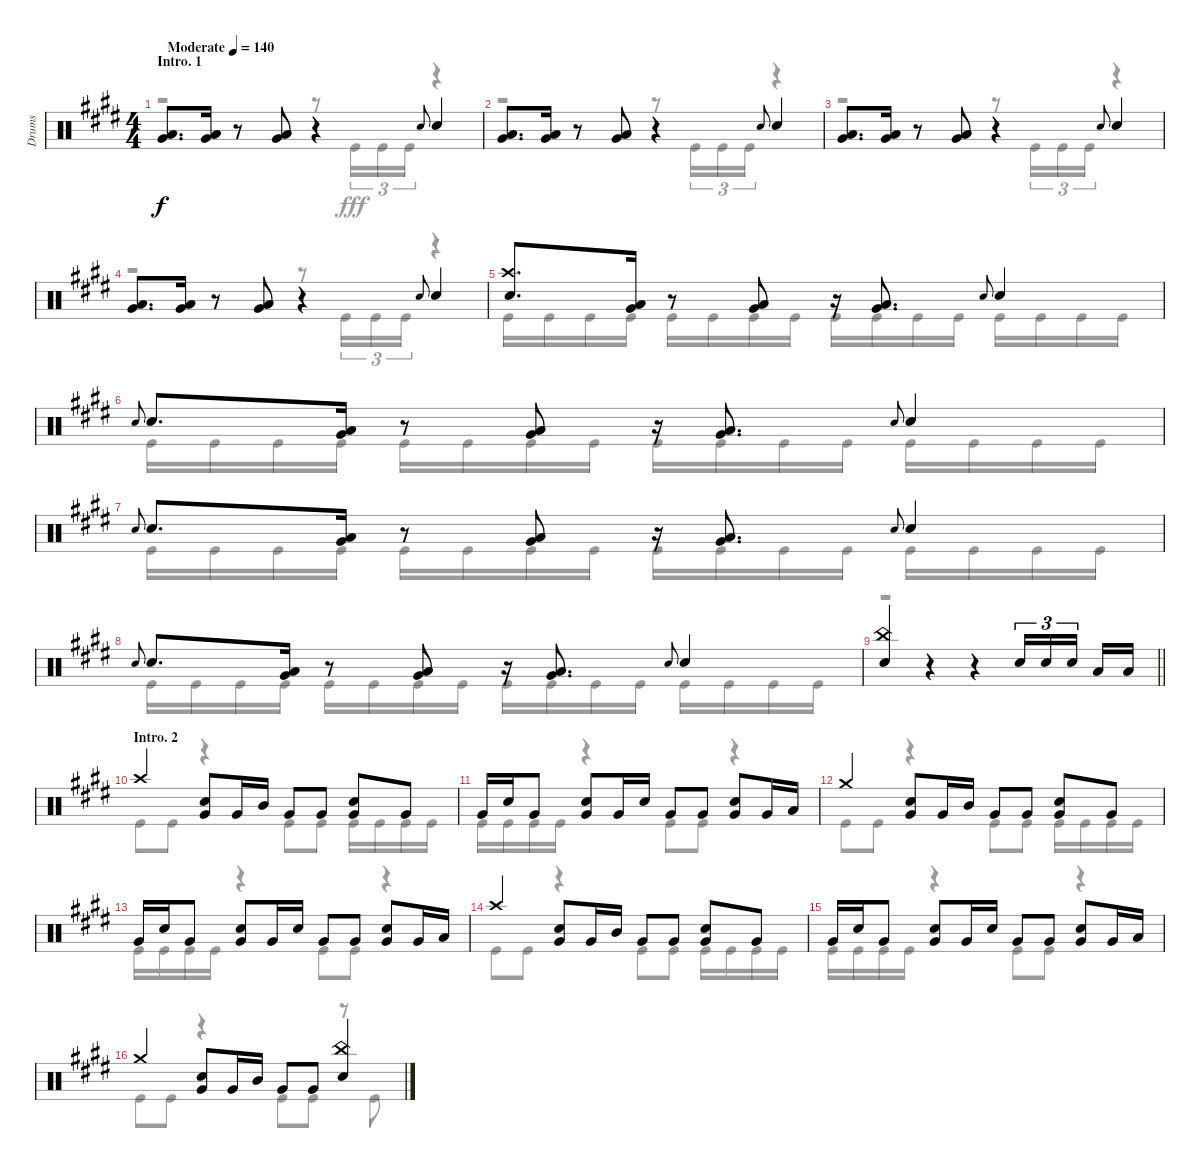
\track ("Drums" "Drums") {instrument percussion}
\staff {score}
\articulation defaults
\voice
\ts (4 4)
\section ("" "Intro. 1")
\tempo (140 "Moderate")
\clef neutral
\ks e
("Low Tom (hit)" "Very Low Tom (hit)").8{d dy f} ("Low Tom (hit)" "Very Low Tom (hit)").16 r.8 ("Low Tom (hit)" "Very Low Tom (hit)").8 r.4 "Snare (hit) 2".8{gr onbeat} "Snare (hit) 2".4 |
("Low Tom (hit)" "Very Low Tom (hit)").8{d} ("Low Tom (hit)" "Very Low Tom (hit)").16 r.8 ("Low Tom (hit)" "Very Low Tom (hit)").8 r.4 "Snare (hit) 2".8{gr onbeat} "Snare (hit) 2".4 |
("Low Tom (hit)" "Very Low Tom (hit)").8{d} ("Low Tom (hit)" "Very Low Tom (hit)").16 r.8 ("Low Tom (hit)" "Very Low Tom (hit)").8 r.4 "Snare (hit) 2".8{gr onbeat} "Snare (hit) 2".4 |
("Low Tom (hit)" "Very Low Tom (hit)").8{d} ("Low Tom (hit)" "Very Low Tom (hit)").16 r.8 ("Low Tom (hit)" "Very Low Tom (hit)").8 r.4 "Snare (hit) 2".8{gr onbeat} "Snare (hit) 2".4 |
("Crash high (hit)" "Snare (hit) 2").8{d} ("Low Tom (hit)" "Very Low Tom (hit)").16 r.8 ("Low Tom (hit)" "Very Low Tom (hit)").8 r.16 ("Low Tom (hit)" "Very Low Tom (hit)").8{d} "Snare (hit) 2".8{gr onbeat} "Snare (hit) 2".4 |
"Snare (hit) 2".8{gr onbeat} "Snare (hit) 2".8{d} ("Low Tom (hit)" "Very Low Tom (hit)").16 r.8 ("Low Tom (hit)" "Very Low Tom (hit)").8 r.16 ("Low Tom (hit)" "Very Low Tom (hit)").8{d} "Snare (hit) 2".8{gr onbeat} "Snare (hit) 2".4 |
"Snare (hit) 2".8{gr onbeat} "Snare (hit) 2".8{d} ("Low Tom (hit)" "Very Low Tom (hit)").16 r.8 ("Low Tom (hit)" "Very Low Tom (hit)").8 r.16 ("Low Tom (hit)" "Very Low Tom (hit)").8{d} "Snare (hit) 2".8{gr onbeat} "Snare (hit) 2".4 |
"Snare (hit) 2".8{gr onbeat} "Snare (hit) 2".8{d} ("Low Tom (hit)" "Very Low Tom (hit)").16 r.8 ("Low Tom (hit)" "Very Low Tom (hit)").8 r.16 ("Low Tom (hit)" "Very Low Tom (hit)").8{d} "Snare (hit) 2".8{gr onbeat} "Snare (hit) 2".4 |
\barLineRight lightlight
("China (hit)" "Snare (hit) 2").4 r.4 r.4 "Snare (hit) 2".16{tu (3 2)} "Snare (hit) 2".16{tu (3 2)} "Snare (hit) 2".16{tu (3 2) beam splitsecondary} "Low Tom (hit)".16 "Low Tom (hit)".16 |
\section ("" "Intro. 2")
"Crash high (hit)".4 ("Snare (hit) 2" "Very Low Tom (hit)").8 "Very Low Tom (hit)".16 "Mid Tom (hit)".16 "Very Low Tom (hit)".8 "Very Low Tom (hit)".8 ("Snare (hit) 2" "Very Low Tom (hit)").8 "Very Low Tom (hit)".8 |
"Very Low Tom (hit)".16 "Snare (hit) 2".16 "Very Low Tom (hit)".8 ("Snare (hit) 2" "Very Low Tom (hit)").8 "Very Low Tom (hit)".16 "Snare (hit) 2".16 "Very Low Tom (hit)".8 "Very Low Tom (hit)".8 ("Snare (hit) 2" "Very Low Tom (hit)").8 "Very Low Tom (hit)".16 "Low Tom (hit)".16 |
"Crash medium (hit)".4 ("Snare (hit) 2" "Very Low Tom (hit)").8 "Very Low Tom (hit)".16 "Mid Tom (hit)".16 "Very Low Tom (hit)".8 "Very Low Tom (hit)".8 ("Snare (hit) 2" "Very Low Tom (hit)").8 "Very Low Tom (hit)".8 |
"Very Low Tom (hit)".16 "Snare (hit) 2".16 "Very Low Tom (hit)".8 ("Snare (hit) 2" "Very Low Tom (hit)").8 "Very Low Tom (hit)".16 "Snare (hit) 2".16 "Very Low Tom (hit)".8 "Very Low Tom (hit)".8 ("Snare (hit) 2" "Very Low Tom (hit)").8 "Very Low Tom (hit)".16 "Low Tom (hit)".16 |
"Crash high (hit)".4 ("Snare (hit) 2" "Very Low Tom (hit)").8 "Very Low Tom (hit)".16 "Mid Tom (hit)".16 "Very Low Tom (hit)".8 "Very Low Tom (hit)".8 ("Snare (hit) 2" "Very Low Tom (hit)").8 "Very Low Tom (hit)".8 |
"Very Low Tom (hit)".16 "Snare (hit) 2".16 "Very Low Tom (hit)".8 ("Snare (hit) 2" "Very Low Tom (hit)").8 "Very Low Tom (hit)".16 "Snare (hit) 2".16 "Very Low Tom (hit)".8 "Very Low Tom (hit)".8 ("Snare (hit) 2" "Very Low Tom (hit)").8 "Very Low Tom (hit)".16 "Low Tom (hit)".16 |
"Crash medium (hit)".4 ("Snare (hit) 2" "Very Low Tom (hit)").8 "Very Low Tom (hit)".16 "Mid Tom (hit)".16 "Very Low Tom (hit)".8 "Very Low Tom (hit)".8 ("China (hit)" "Snare (hit) 2").4
\voice
\clef neutral
\ottava regular
\simile none
\ks e
r.2{dy fff} r.8 "Kick (hit)".16{tu (3 2)} "Kick (hit)".16{tu (3 2)} "Kick (hit)".16{tu (3 2)} r.4 |
r.2 r.8 "Kick (hit)".16{tu (3 2)} "Kick (hit)".16{tu (3 2)} "Kick (hit)".16{tu (3 2)} r.4 |
r.2 r.8 "Kick (hit)".16{tu (3 2)} "Kick (hit)".16{tu (3 2)} "Kick (hit)".16{tu (3 2)} r.4 |
r.2 r.8 "Kick (hit)".16{tu (3 2)} "Kick (hit)".16{tu (3 2)} "Kick (hit)".16{tu (3 2)} r.4 |
"Kick (hit)".16 "Kick (hit)".16 "Kick (hit)".16 "Kick (hit)".16 "Kick (hit)".16 "Kick (hit)".16 "Kick (hit)".16 "Kick (hit)".16 "Kick (hit)".16 "Kick (hit)".16 "Kick (hit)".16 "Kick (hit)".16 "Kick (hit)".16 "Kick (hit)".16 "Kick (hit)".16 "Kick (hit)".16 |
"Kick (hit)".16 "Kick (hit)".16 "Kick (hit)".16 "Kick (hit)".16 "Kick (hit)".16 "Kick (hit)".16 "Kick (hit)".16 "Kick (hit)".16 "Kick (hit)".16 "Kick (hit)".16 "Kick (hit)".16 "Kick (hit)".16 "Kick (hit)".16 "Kick (hit)".16 "Kick (hit)".16 "Kick (hit)".16 |
"Kick (hit)".16 "Kick (hit)".16 "Kick (hit)".16 "Kick (hit)".16 "Kick (hit)".16 "Kick (hit)".16 "Kick (hit)".16 "Kick (hit)".16 "Kick (hit)".16 "Kick (hit)".16 "Kick (hit)".16 "Kick (hit)".16 "Kick (hit)".16 "Kick (hit)".16 "Kick (hit)".16 "Kick (hit)".16 |
"Kick (hit)".16 "Kick (hit)".16 "Kick (hit)".16 "Kick (hit)".16 "Kick (hit)".16 "Kick (hit)".16 "Kick (hit)".16 "Kick (hit)".16 "Kick (hit)".16 "Kick (hit)".16 "Kick (hit)".16 "Kick (hit)".16 "Kick (hit)".16 "Kick (hit)".16 "Kick (hit)".16 "Kick (hit)".16 |
\barLineRight lightlight
r.1 |
"Kick (hit)".8 "Kick (hit)".8 r.4 "Kick (hit)".8 "Kick (hit)".8 "Kick (hit)".16 "Kick (hit)".16 "Kick (hit)".16 "Kick (hit)".16 |
"Kick (hit)".16 "Kick (hit)".16 "Kick (hit)".16 "Kick (hit)".16 r.4 "Kick (hit)".8 "Kick (hit)".8 r.4 |
"Kick (hit)".8 "Kick (hit)".8 r.4 "Kick (hit)".8 "Kick (hit)".8 "Kick (hit)".16 "Kick (hit)".16 "Kick (hit)".16 "Kick (hit)".16 |
"Kick (hit)".16 "Kick (hit)".16 "Kick (hit)".16 "Kick (hit)".16 r.4 "Kick (hit)".8 "Kick (hit)".8 r.4 |
"Kick (hit)".8 "Kick (hit)".8 r.4 "Kick (hit)".8 "Kick (hit)".8 "Kick (hit)".16 "Kick (hit)".16 "Kick (hit)".16 "Kick (hit)".16 |
"Kick (hit)".16 "Kick (hit)".16 "Kick (hit)".16 "Kick (hit)".16 r.4 "Kick (hit)".8 "Kick (hit)".8 r.4 |
"Kick (hit)".8 "Kick (hit)".8 r.4 "Kick (hit)".8 "Kick (hit)".8 r.8 "Kick (hit)".8
